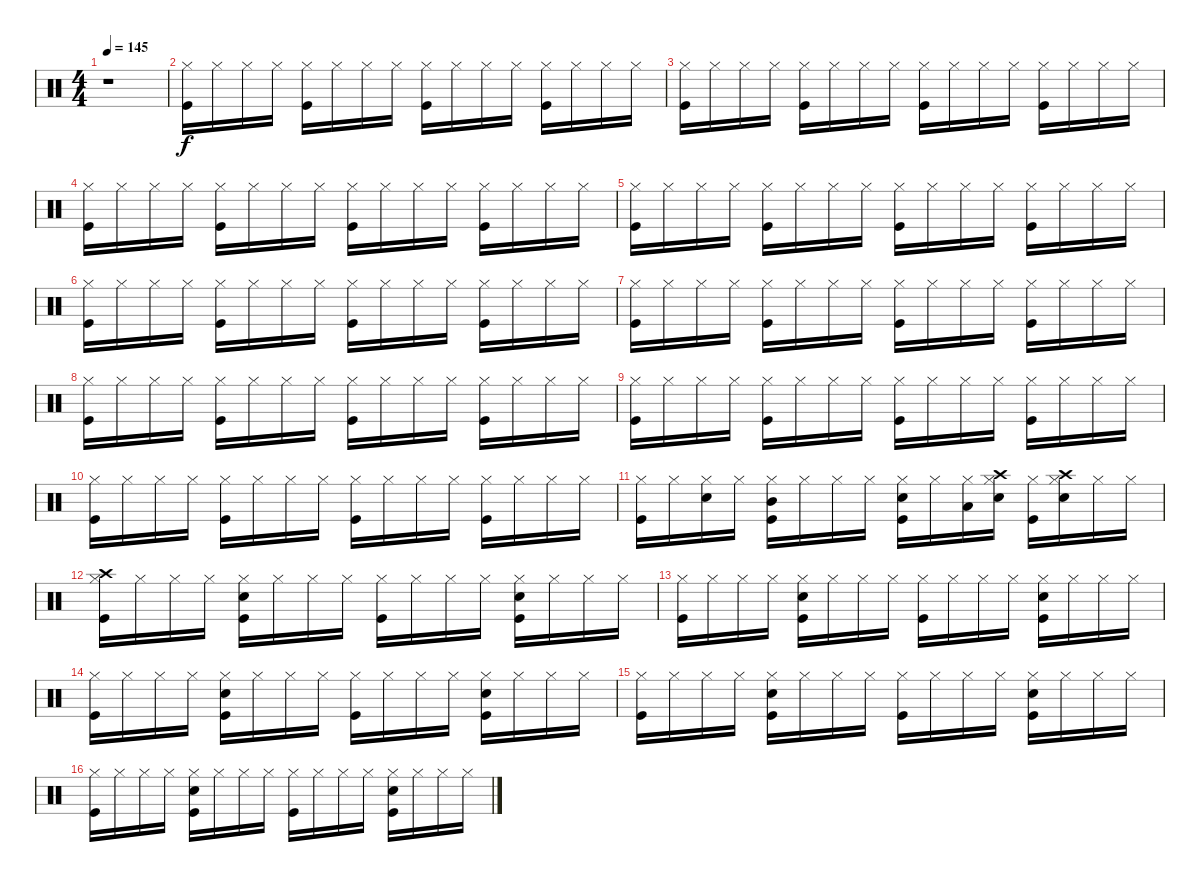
\track "" {instrument percussion}
\staff {score}
\articulation defaults
\ts (4 4)
\tempo 145
\clef neutral
\ks c
r.1{dy f} |
("Hi-Hat (closed)" "Kick (hit)").16 "Hi-Hat (closed)".16 "Hi-Hat (closed)".16 "Hi-Hat (closed)".16 ("Hi-Hat (closed)" "Kick (hit)").16 "Hi-Hat (closed)".16 "Hi-Hat (closed)".16 "Hi-Hat (closed)".16 ("Hi-Hat (closed)" "Kick (hit)").16 "Hi-Hat (closed)".16 "Hi-Hat (closed)".16 "Hi-Hat (closed)".16 ("Hi-Hat (closed)" "Kick (hit)").16 "Hi-Hat (closed)".16 "Hi-Hat (closed)".16 "Hi-Hat (closed)".16 |
("Hi-Hat (closed)" "Kick (hit)").16 "Hi-Hat (closed)".16 "Hi-Hat (closed)".16 "Hi-Hat (closed)".16 ("Hi-Hat (closed)" "Kick (hit)").16 "Hi-Hat (closed)".16 "Hi-Hat (closed)".16 "Hi-Hat (closed)".16 ("Hi-Hat (closed)" "Kick (hit)").16 "Hi-Hat (closed)".16 "Hi-Hat (closed)".16 "Hi-Hat (closed)".16 ("Hi-Hat (closed)" "Kick (hit)").16 "Hi-Hat (closed)".16 "Hi-Hat (closed)".16 "Hi-Hat (closed)".16 |
("Hi-Hat (closed)" "Kick (hit)").16 "Hi-Hat (closed)".16 "Hi-Hat (closed)".16 "Hi-Hat (closed)".16 ("Hi-Hat (closed)" "Kick (hit)").16 "Hi-Hat (closed)".16 "Hi-Hat (closed)".16 "Hi-Hat (closed)".16 ("Hi-Hat (closed)" "Kick (hit)").16 "Hi-Hat (closed)".16 "Hi-Hat (closed)".16 "Hi-Hat (closed)".16 ("Hi-Hat (closed)" "Kick (hit)").16 "Hi-Hat (closed)".16 "Hi-Hat (closed)".16 "Hi-Hat (closed)".16 |
("Hi-Hat (closed)" "Kick (hit)").16 "Hi-Hat (closed)".16 "Hi-Hat (closed)".16 "Hi-Hat (closed)".16 ("Hi-Hat (closed)" "Kick (hit)").16 "Hi-Hat (closed)".16 "Hi-Hat (closed)".16 "Hi-Hat (closed)".16 ("Hi-Hat (closed)" "Kick (hit)").16 "Hi-Hat (closed)".16 "Hi-Hat (closed)".16 "Hi-Hat (closed)".16 ("Hi-Hat (closed)" "Kick (hit)").16 "Hi-Hat (closed)".16 "Hi-Hat (closed)".16 "Hi-Hat (closed)".16 |
("Hi-Hat (closed)" "Kick (hit)").16 "Hi-Hat (closed)".16 "Hi-Hat (closed)".16 "Hi-Hat (closed)".16 ("Hi-Hat (closed)" "Kick (hit)").16 "Hi-Hat (closed)".16 "Hi-Hat (closed)".16 "Hi-Hat (closed)".16 ("Hi-Hat (closed)" "Kick (hit)").16 "Hi-Hat (closed)".16 "Hi-Hat (closed)".16 "Hi-Hat (closed)".16 ("Hi-Hat (closed)" "Kick (hit)").16 "Hi-Hat (closed)".16 "Hi-Hat (closed)".16 "Hi-Hat (closed)".16 |
("Hi-Hat (closed)" "Kick (hit)").16 "Hi-Hat (closed)".16 "Hi-Hat (closed)".16 "Hi-Hat (closed)".16 ("Hi-Hat (closed)" "Kick (hit)").16 "Hi-Hat (closed)".16 "Hi-Hat (closed)".16 "Hi-Hat (closed)".16 ("Hi-Hat (closed)" "Kick (hit)").16 "Hi-Hat (closed)".16 "Hi-Hat (closed)".16 "Hi-Hat (closed)".16 ("Hi-Hat (closed)" "Kick (hit)").16 "Hi-Hat (closed)".16 "Hi-Hat (closed)".16 "Hi-Hat (closed)".16 |
("Hi-Hat (closed)" "Kick (hit)").16 "Hi-Hat (closed)".16 "Hi-Hat (closed)".16 "Hi-Hat (closed)".16 ("Hi-Hat (closed)" "Kick (hit)").16 "Hi-Hat (closed)".16 "Hi-Hat (closed)".16 "Hi-Hat (closed)".16 ("Hi-Hat (closed)" "Kick (hit)").16 "Hi-Hat (closed)".16 "Hi-Hat (closed)".16 "Hi-Hat (closed)".16 ("Hi-Hat (closed)" "Kick (hit)").16 "Hi-Hat (closed)".16 "Hi-Hat (closed)".16 "Hi-Hat (closed)".16 |
("Hi-Hat (closed)" "Kick (hit)").16 "Hi-Hat (closed)".16 "Hi-Hat (closed)".16 "Hi-Hat (closed)".16 ("Hi-Hat (closed)" "Kick (hit)").16 "Hi-Hat (closed)".16 "Hi-Hat (closed)".16 "Hi-Hat (closed)".16 ("Hi-Hat (closed)" "Kick (hit)").16 "Hi-Hat (closed)".16 "Hi-Hat (closed)".16 "Hi-Hat (closed)".16 ("Hi-Hat (closed)" "Kick (hit)").16 "Hi-Hat (closed)".16 "Hi-Hat (closed)".16 "Hi-Hat (closed)".16 |
("Hi-Hat (closed)" "Kick (hit)").16 "Hi-Hat (closed)".16 "Hi-Hat (closed)".16 "Hi-Hat (closed)".16 ("Hi-Hat (closed)" "Kick (hit)").16 "Hi-Hat (closed)".16 "Hi-Hat (closed)".16 "Hi-Hat (closed)".16 ("Hi-Hat (closed)" "Kick (hit)").16 "Hi-Hat (closed)".16 "Hi-Hat (closed)".16 "Hi-Hat (closed)".16 ("Hi-Hat (closed)" "Kick (hit)").16 "Hi-Hat (closed)".16 "Hi-Hat (closed)".16 "Hi-Hat (closed)".16 |
("Hi-Hat (closed)" "Kick (hit)").16 "Hi-Hat (closed)".16 ("Snare (hit) 2" "Hi-Hat (closed)").16 "Hi-Hat (closed)".16 ("Mid Tom (hit)" "Hi-Hat (closed)" "Kick (hit)").16 "Hi-Hat (closed)".16 "Hi-Hat (closed)".16 "Hi-Hat (closed)".16 ("Snare (hit) 2" "Hi-Hat (closed)" "Kick (hit)").16 "Hi-Hat (closed)".16 ("Low Tom (hit)" "Hi-Hat (closed)").16 ("Crash high (hit)" "Snare (hit) 2" "Hi-Hat (closed)").16 ("Hi-Hat (closed)" "Kick (hit)").16 ("Crash high (hit)" "Snare (hit) 2" "Hi-Hat (closed)").16 "Hi-Hat (closed)".16 "Hi-Hat (closed)".16 |
("Crash high (hit)" "Hi-Hat (closed)" "Kick (hit)").16 "Hi-Hat (closed)".16 "Hi-Hat (closed)".16 "Hi-Hat (closed)".16 ("Snare (hit) 2" "Hi-Hat (closed)" "Kick (hit)").16 "Hi-Hat (closed)".16 "Hi-Hat (closed)".16 "Hi-Hat (closed)".16 ("Hi-Hat (closed)" "Kick (hit)").16 "Hi-Hat (closed)".16 "Hi-Hat (closed)".16 "Hi-Hat (closed)".16 ("Snare (hit) 2" "Hi-Hat (closed)" "Kick (hit)").16 "Hi-Hat (closed)".16 "Hi-Hat (closed)".16 "Hi-Hat (closed)".16 |
("Hi-Hat (closed)" "Kick (hit)").16 "Hi-Hat (closed)".16 "Hi-Hat (closed)".16 "Hi-Hat (closed)".16 ("Snare (hit) 2" "Hi-Hat (closed)" "Kick (hit)").16 "Hi-Hat (closed)".16 "Hi-Hat (closed)".16 "Hi-Hat (closed)".16 ("Hi-Hat (closed)" "Kick (hit)").16 "Hi-Hat (closed)".16 "Hi-Hat (closed)".16 "Hi-Hat (closed)".16 ("Snare (hit) 2" "Hi-Hat (closed)" "Kick (hit)").16 "Hi-Hat (closed)".16 "Hi-Hat (closed)".16 "Hi-Hat (closed)".16 |
("Hi-Hat (closed)" "Kick (hit)").16 "Hi-Hat (closed)".16 "Hi-Hat (closed)".16 "Hi-Hat (closed)".16 ("Snare (hit) 2" "Hi-Hat (closed)" "Kick (hit)").16 "Hi-Hat (closed)".16 "Hi-Hat (closed)".16 "Hi-Hat (closed)".16 ("Hi-Hat (closed)" "Kick (hit)").16 "Hi-Hat (closed)".16 "Hi-Hat (closed)".16 "Hi-Hat (closed)".16 ("Snare (hit) 2" "Hi-Hat (closed)" "Kick (hit)").16 "Hi-Hat (closed)".16 "Hi-Hat (closed)".16 "Hi-Hat (closed)".16 |
("Hi-Hat (closed)" "Kick (hit)").16 "Hi-Hat (closed)".16 "Hi-Hat (closed)".16 "Hi-Hat (closed)".16 ("Snare (hit) 2" "Hi-Hat (closed)" "Kick (hit)").16 "Hi-Hat (closed)".16 "Hi-Hat (closed)".16 "Hi-Hat (closed)".16 ("Hi-Hat (closed)" "Kick (hit)").16 "Hi-Hat (closed)".16 "Hi-Hat (closed)".16 "Hi-Hat (closed)".16 ("Snare (hit) 2" "Hi-Hat (closed)" "Kick (hit)").16 "Hi-Hat (closed)".16 "Hi-Hat (closed)".16 "Hi-Hat (closed)".16 |
("Hi-Hat (closed)" "Kick (hit)").16 "Hi-Hat (closed)".16 "Hi-Hat (closed)".16 "Hi-Hat (closed)".16 ("Snare (hit) 2" "Hi-Hat (closed)" "Kick (hit)").16 "Hi-Hat (closed)".16 "Hi-Hat (closed)".16 "Hi-Hat (closed)".16 ("Hi-Hat (closed)" "Kick (hit)").16 "Hi-Hat (closed)".16 "Hi-Hat (closed)".16 "Hi-Hat (closed)".16 ("Snare (hit) 2" "Hi-Hat (closed)" "Kick (hit)").16 "Hi-Hat (closed)".16 "Hi-Hat (closed)".16 "Hi-Hat (closed)".16
